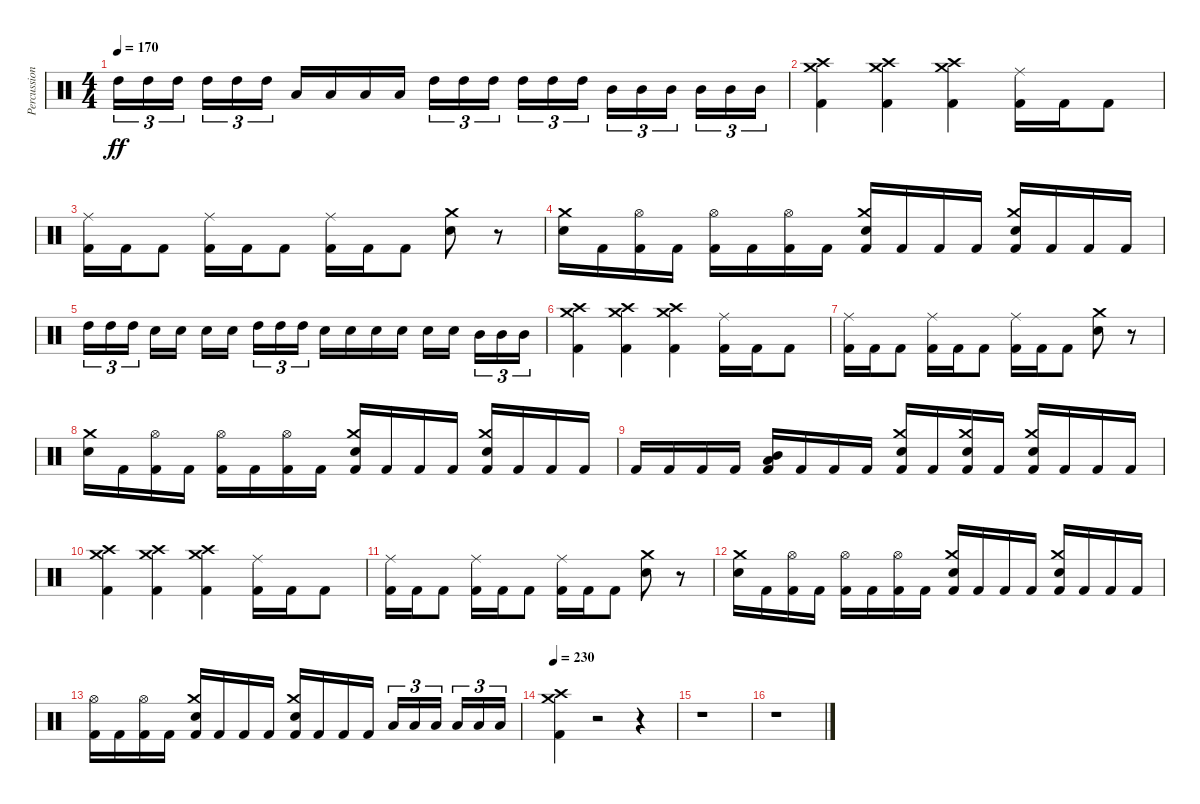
\track ("Percussion" "Percussion") {instrument percussion}
\staff {score}
\articulation defaults
\ts (4 4)
\tempo 170
\clef neutral
\ks c "High Tom (hit)".16{tu (3 2) dy ff} "High Tom (hit)".16{tu (3 2)} "High Tom (hit)".16{tu (3 2)} "High Tom (hit)".16{tu (3 2)} "High Tom (hit)".16{tu (3 2)} "High Tom (hit)".16{tu (3 2)} "Low Tom (hit)".16 "Low Tom (hit)".16 "Low Tom (hit)".16 "Low Tom (hit)".16 "High Tom (hit)".16{tu (3 2)} "High Tom (hit)".16{tu (3 2)} "High Tom (hit)".16{tu (3 2)} "High Tom (hit)".16{tu (3 2)} "High Tom (hit)".16{tu (3 2)} "High Tom (hit)".16{tu (3 2)} "Mid Tom (hit)".16{tu (3 2)} "Mid Tom (hit)".16{tu (3 2)} "Mid Tom (hit)".16{tu (3 2)} "Mid Tom (hit)".16{tu (3 2)} "Mid Tom (hit)".16{tu (3 2)} "Mid Tom (hit)".16{tu (3 2)}
|
("Kick (hit) 2" "Crash medium (hit)" "Crash high (hit)").4 ("Kick (hit) 2" "Crash medium (hit)" "Crash high (hit)").4 ("Kick (hit) 2" "Crash medium (hit)" "Crash high (hit)").4 ("Kick (hit) 2" "Ride (middle)").16 "Kick (hit) 2".16 "Kick (hit) 2".8 |
("Kick (hit) 2" "Ride (middle)").16 "Kick (hit) 2".16 "Kick (hit) 2".8 ("Kick (hit) 2" "Ride (middle)").16 "Kick (hit) 2".16 "Kick (hit) 2".8 ("Kick (hit) 2" "Ride (middle)").16 "Kick (hit) 2".16 "Kick (hit) 2".8 ("Crash medium (hit)" "Electric Snare (hit)").8 r.8 |
("Crash medium (hit)" "Electric Snare (hit)").16 "Kick (hit) 2".16 ("Kick (hit) 2" "Hi-Hat (open)").16 "Kick (hit) 2".16 ("Kick (hit) 2" "Hi-Hat (open)").16 "Kick (hit) 2".16 ("Kick (hit) 2" "Hi-Hat (open)").16 "Kick (hit) 2".16 ("Kick (hit) 2" "Crash medium (hit)" "Electric Snare (hit)").16 "Kick (hit) 2".16 "Kick (hit) 2".16 "Kick (hit) 2".16 ("Kick (hit) 2" "Crash medium (hit)" "Electric Snare (hit)").16 "Kick (hit) 2".16 "Kick (hit) 2".16 "Kick (hit) 2".16 |
"High Tom (hit)".16{tu (3 2)} "High Tom (hit)".16{tu (3 2)} "High Tom (hit)".16{tu (3 2)} "Electric Snare (hit)".16 "Electric Snare (hit)".16 "Electric Snare (hit)".16 "Electric Snare (hit)".16 "High Tom (hit)".16{tu (3 2)} "High Tom (hit)".16{tu (3 2)} "High Tom (hit)".16{tu (3 2)} "Electric Snare (hit)".16 "Electric Snare (hit)".16 "Electric Snare (hit)".16 "Electric Snare (hit)".16 "Electric Snare (hit)".16 "Electric Snare (hit)".16 "Mid Tom (hit)".16{tu (3 2)} "Mid Tom (hit)".16{tu (3 2)} "Mid Tom (hit)".16{tu (3 2)} |
("Kick (hit) 2" "Crash medium (hit)" "Crash high (hit)").4 ("Kick (hit) 2" "Crash medium (hit)" "Crash high (hit)").4 ("Kick (hit) 2" "Crash medium (hit)" "Crash high (hit)").4 ("Kick (hit) 2" "Ride (middle)").16 "Kick (hit) 2".16 "Kick (hit) 2".8 |
("Kick (hit) 2" "Ride (middle)").16 "Kick (hit) 2".16 "Kick (hit) 2".8 ("Kick (hit) 2" "Ride (middle)").16 "Kick (hit) 2".16 "Kick (hit) 2".8 ("Kick (hit) 2" "Ride (middle)").16 "Kick (hit) 2".16 "Kick (hit) 2".8 ("Crash medium (hit)" "Electric Snare (hit)").8 r.8 |
("Crash medium (hit)" "Electric Snare (hit)").16 "Kick (hit) 2".16 ("Kick (hit) 2" "Hi-Hat (open)").16 "Kick (hit) 2".16 ("Kick (hit) 2" "Hi-Hat (open)").16 "Kick (hit) 2".16 ("Kick (hit) 2" "Hi-Hat (open)").16 "Kick (hit) 2".16 ("Kick (hit) 2" "Crash medium (hit)" "Electric Snare (hit)").16 "Kick (hit) 2".16 "Kick (hit) 2".16 "Kick (hit) 2".16 ("Kick (hit) 2" "Crash medium (hit)" "Electric Snare (hit)").16 "Kick (hit) 2".16 "Kick (hit) 2".16 "Kick (hit) 2".16 |
"Kick (hit) 2".16 "Kick (hit) 2".16 "Kick (hit) 2".16 "Kick (hit) 2".16 ("Kick (hit) 2" "Low Tom (hit)" "Mid Tom (hit)").16 "Kick (hit) 2".16 "Kick (hit) 2".16 "Kick (hit) 2".16 ("Kick (hit) 2" "Electric Snare (hit)" "Crash medium (hit)").16 "Kick (hit) 2".16 ("Kick (hit) 2" "Electric Snare (hit)" "Crash medium (hit)").16 "Kick (hit) 2".16 ("Kick (hit) 2" "Electric Snare (hit)" "Crash medium (hit)").16 "Kick (hit) 2".16 "Kick (hit) 2".16 "Kick (hit) 2".16 |
("Kick (hit) 2" "Crash medium (hit)" "Crash high (hit)").4 ("Kick (hit) 2" "Crash medium (hit)" "Crash high (hit)").4 ("Kick (hit) 2" "Crash medium (hit)" "Crash high (hit)").4 ("Kick (hit) 2" "Ride (middle)").16 "Kick (hit) 2".16 "Kick (hit) 2".8 |
("Kick (hit) 2" "Ride (middle)").16 "Kick (hit) 2".16 "Kick (hit) 2".8 ("Kick (hit) 2" "Ride (middle)").16 "Kick (hit) 2".16 "Kick (hit) 2".8 ("Kick (hit) 2" "Ride (middle)").16 "Kick (hit) 2".16 "Kick (hit) 2".8 ("Crash medium (hit)" "Electric Snare (hit)").8 r.8 |
("Crash medium (hit)" "Electric Snare (hit)").16 "Kick (hit) 2".16 ("Kick (hit) 2" "Hi-Hat (open)").16 "Kick (hit) 2".16 ("Kick (hit) 2" "Hi-Hat (open)").16 "Kick (hit) 2".16 ("Kick (hit) 2" "Hi-Hat (open)").16 "Kick (hit) 2".16 ("Kick (hit) 2" "Crash medium (hit)" "Electric Snare (hit)").16 "Kick (hit) 2".16 "Kick (hit) 2".16 "Kick (hit) 2".16 ("Kick (hit) 2" "Crash medium (hit)" "Electric Snare (hit)").16 "Kick (hit) 2".16 "Kick (hit) 2".16 "Kick (hit) 2".16 |
("Kick (hit) 2" "Hi-Hat (open)").16 "Kick (hit) 2".16 ("Kick (hit) 2" "Hi-Hat (open)").16 "Kick (hit) 2".16 ("Kick (hit) 2" "Electric Snare (hit)" "Crash medium (hit)").16 "Kick (hit) 2".16 "Kick (hit) 2".16 "Kick (hit) 2".16 ("Kick (hit) 2" "Electric Snare (hit)" "Crash medium (hit)").16 "Kick (hit) 2".16 "Kick (hit) 2".16 "Kick (hit) 2".16 "Low Tom (hit)".16{tu (3 2)} "Low Tom (hit)".16{tu (3 2)} "Low Tom (hit)".16{tu (3 2)} "Low Tom (hit)".16{tu (3 2)} "Low Tom (hit)".16{tu (3 2)} "Low Tom (hit)".16{tu (3 2)} |
\tempo 230
("Kick (hit) 2" "Crash medium (hit)" "Crash high (hit)").4 r.2 r.4 |
r.1 |
r.1
